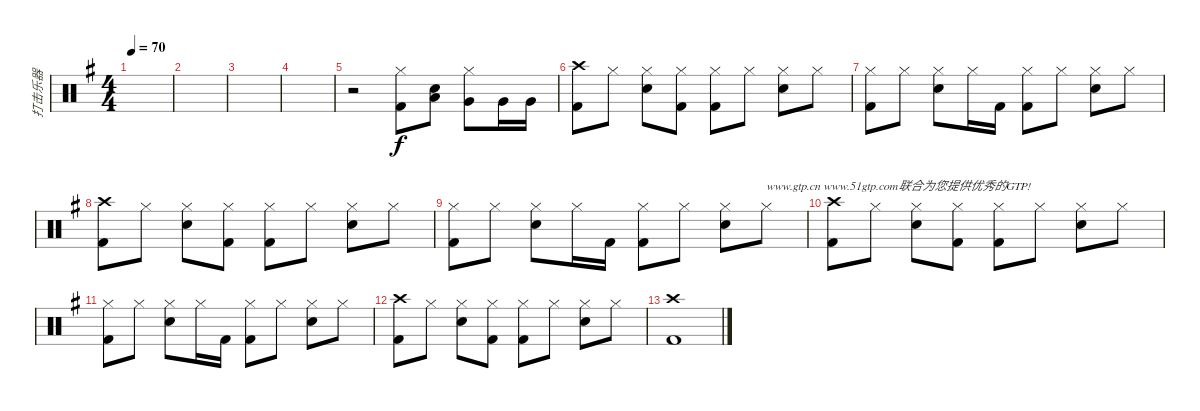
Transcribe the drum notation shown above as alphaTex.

\track ("打击乐器" "打击乐器") {instrument percussion}
\staff {score}
\articulation defaults
\ts (4 4)
\tempo 70
\clef neutral
\ks g
|
|
|
|
r.2 ("Kick (hit) 2" "Hi-Hat (closed)").8 ("Low Tom (hit)" "Electric Snare (hit)").8 ("Very Low Tom (hit)" "Hi-Hat (closed)").8 "Very Low Tom (hit)".16 "Very Low Tom (hit)".16{dy f} |
("Crash high (hit)" "Kick (hit) 2").8 "Hi-Hat (closed)".8 ("Hi-Hat (closed)" "Snare (hit) 2").8 ("Hi-Hat (closed)" "Kick (hit) 2").8 ("Hi-Hat (closed)" "Kick (hit) 2").8 "Hi-Hat (closed)".8 ("Hi-Hat (closed)" "Snare (hit) 2").8 "Hi-Hat (closed)".8 |
("Hi-Hat (closed)" "Kick (hit) 2").8 "Hi-Hat (closed)".8 ("Hi-Hat (closed)" "Snare (hit) 2").8 "Hi-Hat (closed)".16 "Kick (hit) 2".16 ("Hi-Hat (closed)" "Kick (hit) 2").8 "Hi-Hat (closed)".8 ("Hi-Hat (closed)" "Snare (hit) 2").8 "Hi-Hat (closed)".8 |
("Crash high (hit)" "Kick (hit) 2").8 "Hi-Hat (closed)".8 ("Hi-Hat (closed)" "Snare (hit) 2").8 ("Hi-Hat (closed)" "Kick (hit) 2").8 ("Hi-Hat (closed)" "Kick (hit) 2").8 "Hi-Hat (closed)".8 ("Hi-Hat (closed)" "Snare (hit) 2").8 "Hi-Hat (closed)".8 |
("Hi-Hat (closed)" "Kick (hit) 2").8 "Hi-Hat (closed)".8 ("Hi-Hat (closed)" "Snare (hit) 2").8 "Hi-Hat (closed)".16 "Kick (hit) 2".16 ("Hi-Hat (closed)" "Kick (hit) 2").8 "Hi-Hat (closed)".8 ("Hi-Hat (closed)" "Snare (hit) 2").8 "Hi-Hat (closed)".8{txt "www.gtp.cn www.51gtp.com联合为您提供优秀的GTP!"} |
("Crash high (hit)" "Kick (hit) 2").8 "Hi-Hat (closed)".8 ("Hi-Hat (closed)" "Snare (hit) 2").8 ("Hi-Hat (closed)" "Kick (hit) 2").8 ("Hi-Hat (closed)" "Kick (hit) 2").8 "Hi-Hat (closed)".8 ("Hi-Hat (closed)" "Snare (hit) 2").8 "Hi-Hat (closed)".8 |
("Hi-Hat (closed)" "Kick (hit) 2").8 "Hi-Hat (closed)".8 ("Hi-Hat (closed)" "Snare (hit) 2").8 "Hi-Hat (closed)".16 "Kick (hit) 2".16 ("Hi-Hat (closed)" "Kick (hit) 2").8 "Hi-Hat (closed)".8 ("Hi-Hat (closed)" "Snare (hit) 2").8 "Hi-Hat (closed)".8 |
("Crash high (hit)" "Kick (hit) 2").8 "Hi-Hat (closed)".8 ("Hi-Hat (closed)" "Snare (hit) 2").8 ("Hi-Hat (closed)" "Kick (hit) 2").8 ("Hi-Hat (closed)" "Kick (hit) 2").8 "Hi-Hat (closed)".8 ("Hi-Hat (closed)" "Snare (hit) 2").8 "Hi-Hat (closed)".8 |
("Crash high (hit)" "Kick (hit) 2").1
